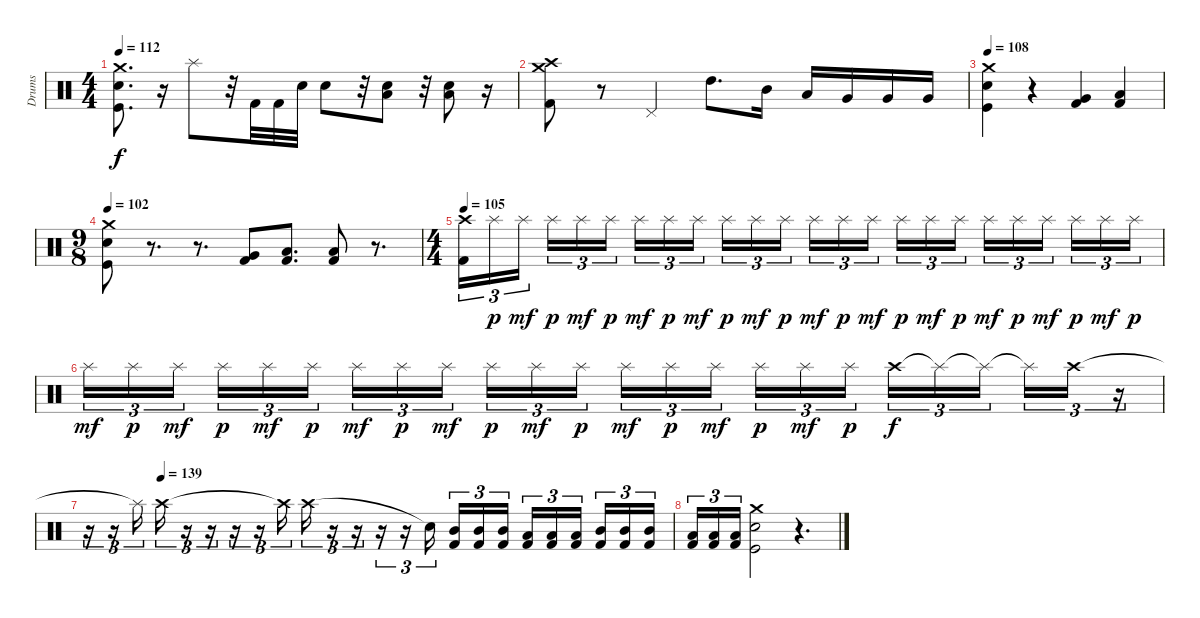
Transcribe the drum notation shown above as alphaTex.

\track ("Drums" "Drums") {instrument percussion}
\staff {score}
\articulation defaults
\ts (4 4)
\tempo 112
\clef neutral
\ks c
("Crash medium (hit)" "Snare (hit) 2" "Kick (hit)").8{d dy f} r.16 "Splash (hit)".8 r.32 "Kick (hit) 2".32 "Kick (hit) 2".32 "Electric Snare (hit)".32 "Electric Snare (hit)".8 r.32 ("Electric Snare (hit)" "Low Tom (hit)").8 r.32 ("Electric Snare (hit)" "Low Tom (hit)").8 r.16 |
("Crash medium (hit)" "Crash high (hit)" "Kick (hit) 2").8 r.8 "Pedal Hi-Hat (hit)".4 "High Tom (hit)".8{d} "Mid Tom (hit)".16 "Low Tom (hit)".16 "Very Low Tom (hit)".16 "Very Low Tom (hit)".16 "Very Low Tom (hit)".16 |
\tempo 108
("Crash medium (hit)" "Snare (hit) 2" "Kick (hit)").4 r.4 ("Kick (hit) 2" "Very Low Tom (hit)").4 ("Kick (hit) 2" "Low Floor Tom (hit)").4 |
\ts (9 8)
\tempo 102
("Crash medium (hit)" "Snare (hit) 2" "Kick (hit)").8 r.8{d} r.8{d} ("Kick (hit) 2" "Very Low Tom (hit)").8 ("Kick (hit) 2" "Low Floor Tom (hit)").8{d} ("Kick (hit) 2" "Low Floor Tom (hit)").8 r.8{d} |
\ts (4 4)
\tempo 105
("Crash high (hit)" "Kick (hit) 2").16{tu (3 2)} "Splash (hit)".16{tu (3 2) dy p} "Splash (hit)".16{tu (3 2) dy mf beam splitsecondary} "Splash (hit)".16{tu (3 2) dy p} "Splash (hit)".16{tu (3 2) dy mf} "Splash (hit)".16{tu (3 2) dy p} "Splash (hit)".16{tu (3 2) dy mf} "Splash (hit)".16{tu (3 2) dy p} "Splash (hit)".16{tu (3 2) dy mf beam splitsecondary} "Splash (hit)".16{tu (3 2) dy p} "Splash (hit)".16{tu (3 2) dy mf} "Splash (hit)".16{tu (3 2) dy p} "Splash (hit)".16{tu (3 2) dy mf} "Splash (hit)".16{tu (3 2) dy p} "Splash (hit)".16{tu (3 2) dy mf beam splitsecondary} "Splash (hit)".16{tu (3 2) dy p} "Splash (hit)".16{tu (3 2) dy mf} "Splash (hit)".16{tu (3 2) dy p} "Splash (hit)".16{tu (3 2) dy mf} "Splash (hit)".16{tu (3 2) dy p} "Splash (hit)".16{tu (3 2) dy mf beam splitsecondary} "Splash (hit)".16{tu (3 2) dy p} "Splash (hit)".16{tu (3 2) dy mf} "Splash (hit)".16{tu (3 2) dy p} |
"Splash (hit)".16{tu (3 2) dy mf} "Splash (hit)".16{tu (3 2) dy p} "Splash (hit)".16{tu (3 2) dy mf beam splitsecondary} "Splash (hit)".16{tu (3 2) dy p} "Splash (hit)".16{tu (3 2) dy mf} "Splash (hit)".16{tu (3 2) dy p} "Splash (hit)".16{tu (3 2) dy mf} "Splash (hit)".16{tu (3 2) dy p} "Splash (hit)".16{tu (3 2) dy mf beam splitsecondary} "Splash (hit)".16{tu (3 2) dy p} "Splash (hit)".16{tu (3 2) dy mf} "Splash (hit)".16{tu (3 2) dy p} "Splash (hit)".16{tu (3 2) dy mf} "Splash (hit)".16{tu (3 2) dy p} "Splash (hit)".16{tu (3 2) dy mf beam splitsecondary} "Splash (hit)".16{tu (3 2) dy p} "Splash (hit)".16{tu (3 2) dy mf} "Splash (hit)".16{tu (3 2) dy p} "Crash high (hit)".16{tu (3 2) dy f} "Splash (hit)"{t}.16{tu (3 2)} "Splash (hit)"{t}.16{tu (3 2) beam splitsecondary} "Splash (hit)"{t}.16{tu (3 2)} "Crash high (hit)".16{tu (3 2)} r.16{tu (3 2)} |
\tempo (139 0.125)
r.16{tu (3 2)} r.16{tu (3 2)} "Splash (hit)"{t}.16{tu (3 2)} "Crash high (hit)".16{tu (3 2)} r.16{tu (3 2)} r.16{tu (3 2)} r.16{tu (3 2)} r.16{tu (3 2)} "Crash high (hit)"{t}.16{tu (3 2)} "Crash high (hit)".16{tu (3 2)} r.16{tu (3 2)} r.16{tu (3 2)} r.16{tu (3 2)} r.16{tu (3 2)} "Snare (hit)"{t}.16{tu (3 2) beam splitsecondary} ("Mid Tom (hit)" "Kick (hit) 2").16{tu (3 2)} ("Mid Tom (hit)" "Kick (hit) 2").16{tu (3 2)} ("Mid Tom (hit)" "Kick (hit) 2").16{tu (3 2)} ("Low Tom (hit)" "Kick (hit) 2").16{tu (3 2)} ("Low Tom (hit)" "Kick (hit) 2").16{tu (3 2)} ("Low Tom (hit)" "Kick (hit) 2").16{tu (3 2) beam splitsecondary} ("Mid Tom (hit)" "Kick (hit) 2").16{tu (3 2)} ("Mid Tom (hit)" "Kick (hit) 2").16{tu (3 2)} ("Mid Tom (hit)" "Kick (hit) 2").16{tu (3 2)} |
("Low Tom (hit)" "Kick (hit) 2").16{tu (3 2)} ("Low Tom (hit)" "Kick (hit) 2").16{tu (3 2)} ("Low Tom (hit)" "Kick (hit) 2").16{tu (3 2)} ("Kick (hit)" "Crash medium (hit)" "Snare (hit) 2").2 r.4{d}
